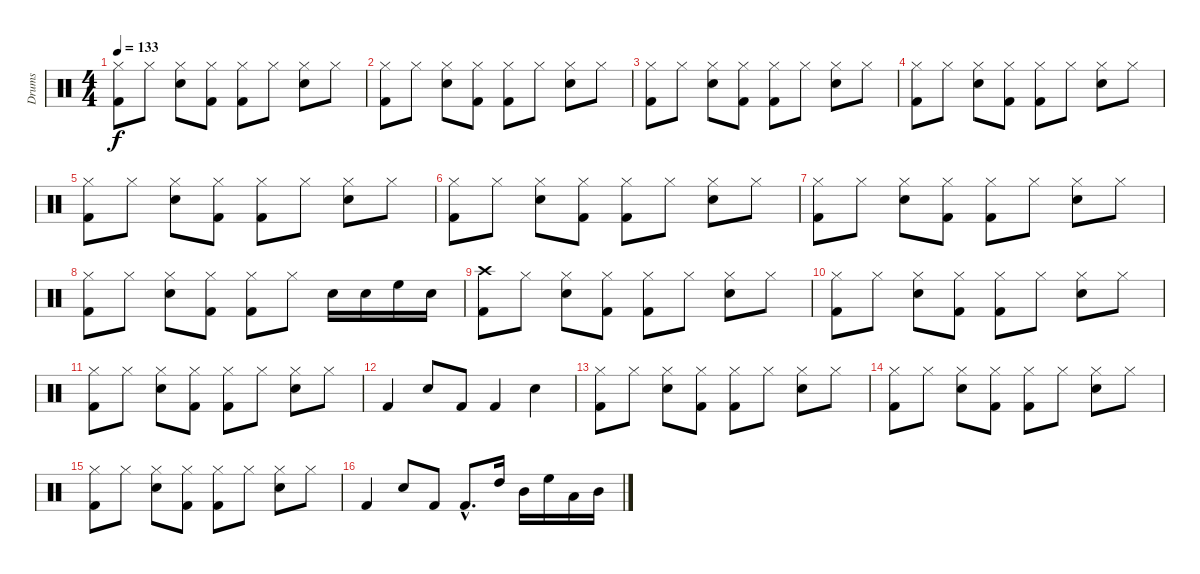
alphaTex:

\track ("Drums" "Drums") {instrument percussion}
\staff {score}
\articulation defaults
\ts (4 4)
\tempo 133
\clef neutral
\ks c
("Kick (hit) 2" "Hi-Hat (closed)").8{dy f} "Hi-Hat (closed)".8 ("Snare (hit) 2" "Hi-Hat (closed)").8 ("Kick (hit) 2" "Hi-Hat (closed)").8 ("Kick (hit) 2" "Hi-Hat (closed)").8 "Hi-Hat (closed)".8 ("Snare (hit) 2" "Hi-Hat (closed)").8 "Hi-Hat (closed)".8 |
("Kick (hit) 2" "Hi-Hat (closed)").8 "Hi-Hat (closed)".8 ("Snare (hit) 2" "Hi-Hat (closed)").8 ("Kick (hit) 2" "Hi-Hat (closed)").8 ("Kick (hit) 2" "Hi-Hat (closed)").8 "Hi-Hat (closed)".8 ("Snare (hit) 2" "Hi-Hat (closed)").8 "Hi-Hat (closed)".8 |
("Kick (hit) 2" "Hi-Hat (closed)").8 "Hi-Hat (closed)".8 ("Snare (hit) 2" "Hi-Hat (closed)").8 ("Kick (hit) 2" "Hi-Hat (closed)").8 ("Kick (hit) 2" "Hi-Hat (closed)").8 "Hi-Hat (closed)".8 ("Snare (hit) 2" "Hi-Hat (closed)").8 "Hi-Hat (closed)".8 |
("Kick (hit) 2" "Hi-Hat (closed)").8 "Hi-Hat (closed)".8 ("Snare (hit) 2" "Hi-Hat (closed)").8 ("Kick (hit) 2" "Hi-Hat (closed)").8 ("Kick (hit) 2" "Hi-Hat (closed)").8 "Hi-Hat (closed)".8 ("Snare (hit) 2" "Hi-Hat (closed)").8 "Hi-Hat (closed)".8 |
("Kick (hit) 2" "Hi-Hat (closed)").8 "Hi-Hat (closed)".8 ("Snare (hit) 2" "Hi-Hat (closed)").8 ("Kick (hit) 2" "Hi-Hat (closed)").8 ("Kick (hit) 2" "Hi-Hat (closed)").8 "Hi-Hat (closed)".8 ("Snare (hit) 2" "Hi-Hat (closed)").8 "Hi-Hat (closed)".8 |
("Kick (hit) 2" "Hi-Hat (closed)").8 "Hi-Hat (closed)".8 ("Snare (hit) 2" "Hi-Hat (closed)").8 ("Kick (hit) 2" "Hi-Hat (closed)").8 ("Kick (hit) 2" "Hi-Hat (closed)").8 "Hi-Hat (closed)".8 ("Snare (hit) 2" "Hi-Hat (closed)").8 "Hi-Hat (closed)".8 |
("Kick (hit) 2" "Hi-Hat (closed)").8 "Hi-Hat (closed)".8 ("Snare (hit) 2" "Hi-Hat (closed)").8 ("Kick (hit) 2" "Hi-Hat (closed)").8 ("Kick (hit) 2" "Hi-Hat (closed)").8 "Hi-Hat (closed)".8 ("Snare (hit) 2" "Hi-Hat (closed)").8 "Hi-Hat (closed)".8 |
("Kick (hit) 2" "Hi-Hat (closed)").8 "Hi-Hat (closed)".8 ("Snare (hit) 2" "Hi-Hat (closed)").8 ("Kick (hit) 2" "Hi-Hat (closed)").8 ("Kick (hit) 2" "Hi-Hat (closed)").8 "Hi-Hat (closed)".8 "Snare (hit) 2".16 "Snare (hit) 2".16 "High Floor Tom (hit)".16 "Snare (hit) 2".16 |
("Kick (hit) 2" "Crash high (hit)").8 "Hi-Hat (closed)".8 ("Snare (hit) 2" "Hi-Hat (closed)").8 ("Kick (hit) 2" "Hi-Hat (closed)").8 ("Kick (hit) 2" "Hi-Hat (closed)").8 "Hi-Hat (closed)".8 ("Snare (hit) 2" "Hi-Hat (closed)").8 "Hi-Hat (closed)".8 |
("Kick (hit) 2" "Hi-Hat (closed)").8 "Hi-Hat (closed)".8 ("Snare (hit) 2" "Hi-Hat (closed)").8 ("Kick (hit) 2" "Hi-Hat (closed)").8 ("Kick (hit) 2" "Hi-Hat (closed)").8 "Hi-Hat (closed)".8 ("Snare (hit) 2" "Hi-Hat (closed)").8 "Hi-Hat (closed)".8 |
("Kick (hit) 2" "Hi-Hat (closed)").8 "Hi-Hat (closed)".8 ("Snare (hit) 2" "Hi-Hat (closed)").8 ("Kick (hit) 2" "Hi-Hat (closed)").8 ("Kick (hit) 2" "Hi-Hat (closed)").8 "Hi-Hat (closed)".8 ("Snare (hit) 2" "Hi-Hat (closed)").8 "Hi-Hat (closed)".8 |
"Kick (hit) 2".4 "Snare (hit) 2".8 "Kick (hit) 2".8 "Kick (hit) 2".4 "Snare (hit) 2".4 |
("Kick (hit) 2" "Hi-Hat (closed)").8 "Hi-Hat (closed)".8 ("Snare (hit) 2" "Hi-Hat (closed)").8 ("Kick (hit) 2" "Hi-Hat (closed)").8 ("Kick (hit) 2" "Hi-Hat (closed)").8 "Hi-Hat (closed)".8 ("Snare (hit) 2" "Hi-Hat (closed)").8 "Hi-Hat (closed)".8 |
("Kick (hit) 2" "Hi-Hat (closed)").8 "Hi-Hat (closed)".8 ("Snare (hit) 2" "Hi-Hat (closed)").8 ("Kick (hit) 2" "Hi-Hat (closed)").8 ("Kick (hit) 2" "Hi-Hat (closed)").8 "Hi-Hat (closed)".8 ("Snare (hit) 2" "Hi-Hat (closed)").8 "Hi-Hat (closed)".8 |
("Kick (hit) 2" "Hi-Hat (closed)").8 "Hi-Hat (closed)".8 ("Snare (hit) 2" "Hi-Hat (closed)").8 ("Kick (hit) 2" "Hi-Hat (closed)").8 ("Kick (hit) 2" "Hi-Hat (closed)").8 "Hi-Hat (closed)".8 ("Snare (hit) 2" "Hi-Hat (closed)").8 "Hi-Hat (closed)".8 |
"Kick (hit) 2".4 "Snare (hit) 2".8 "Kick (hit) 2".8 "Kick (hit) 2"{hac}.8{d} "High Tom (hit)".16 "Mid Tom (hit)".16 "High Floor Tom (hit)".16 "Low Tom (hit)".16 "Mid Tom (hit)".16
